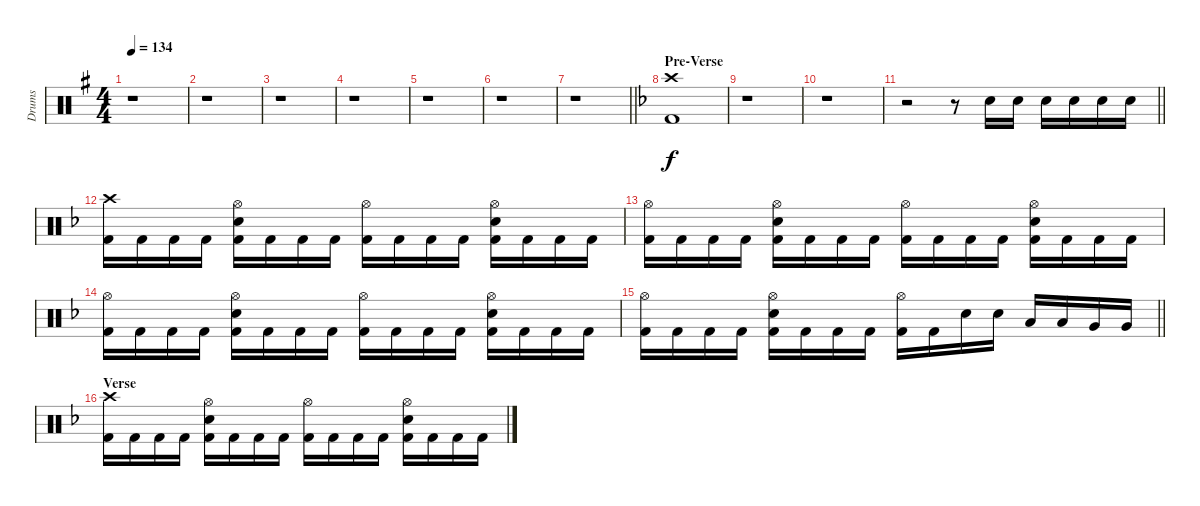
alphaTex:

\track ("Drums" "Drums") {instrument percussion}
\staff {score}
\articulation defaults
\ts (4 4)
\tempo 134
\clef neutral
\ks eminor
r.1{dy f} |
r.1 |
r.1 |
r.1 |
r.1 |
r.1 |
\barLineRight lightlight
r.1 |
\section ("" "Pre-Verse")
\ks dminor
("Crash high (hit)" "Kick (hit) 2").1 |
r.1 |
r.1 |
\barLineRight lightlight
r.2 r.8 "Snare (hit) 2".16 "Snare (hit) 2".16 "Snare (hit) 2".16 "Snare (hit) 2".16 "Snare (hit) 2".16 "Snare (hit) 2".16 |
("Crash high (hit)" "Kick (hit) 2").16 "Kick (hit) 2".16 "Kick (hit) 2".16 "Kick (hit) 2".16 ("Hi-Hat (open)" "Snare (hit) 2" "Kick (hit) 2").16 "Kick (hit) 2".16 "Kick (hit) 2".16 "Kick (hit) 2".16 ("Hi-Hat (open)" "Kick (hit) 2").16 "Kick (hit) 2".16 "Kick (hit) 2".16 "Kick (hit) 2".16 ("Hi-Hat (open)" "Snare (hit) 2" "Kick (hit) 2").16 "Kick (hit) 2".16 "Kick (hit) 2".16 "Kick (hit) 2".16 |
("Hi-Hat (open)" "Kick (hit) 2").16 "Kick (hit) 2".16 "Kick (hit) 2".16 "Kick (hit) 2".16 ("Hi-Hat (open)" "Snare (hit) 2" "Kick (hit) 2").16 "Kick (hit) 2".16 "Kick (hit) 2".16 "Kick (hit) 2".16 ("Hi-Hat (open)" "Kick (hit) 2").16 "Kick (hit) 2".16 "Kick (hit) 2".16 "Kick (hit) 2".16 ("Hi-Hat (open)" "Snare (hit) 2" "Kick (hit) 2").16 "Kick (hit) 2".16 "Kick (hit) 2".16 "Kick (hit) 2".16 |
("Hi-Hat (open)" "Kick (hit) 2").16 "Kick (hit) 2".16 "Kick (hit) 2".16 "Kick (hit) 2".16 ("Hi-Hat (open)" "Snare (hit) 2" "Kick (hit) 2").16 "Kick (hit) 2".16 "Kick (hit) 2".16 "Kick (hit) 2".16 ("Hi-Hat (open)" "Kick (hit) 2").16 "Kick (hit) 2".16 "Kick (hit) 2".16 "Kick (hit) 2".16 ("Hi-Hat (open)" "Snare (hit) 2" "Kick (hit) 2").16 "Kick (hit) 2".16 "Kick (hit) 2".16 "Kick (hit) 2".16 |
\barLineRight lightlight
("Hi-Hat (open)" "Kick (hit) 2").16 "Kick (hit) 2".16 "Kick (hit) 2".16 "Kick (hit) 2".16 ("Hi-Hat (open)" "Snare (hit) 2" "Kick (hit) 2").16 "Kick (hit) 2".16 "Kick (hit) 2".16 "Kick (hit) 2".16 ("Hi-Hat (open)" "Kick (hit) 2").16 "Kick (hit) 2".16 "Snare (hit) 2".16 "Snare (hit) 2".16 "Low Tom (hit)".16 "Low Tom (hit)".16 "Very Low Tom (hit)".16 "Very Low Tom (hit)".16 |
\section ("" "Verse")
("Crash high (hit)" "Kick (hit) 2").16 "Kick (hit) 2".16 "Kick (hit) 2".16 "Kick (hit) 2".16 ("Hi-Hat (open)" "Snare (hit) 2" "Kick (hit) 2").16 "Kick (hit) 2".16 "Kick (hit) 2".16 "Kick (hit) 2".16 ("Hi-Hat (open)" "Kick (hit) 2").16 "Kick (hit) 2".16 "Kick (hit) 2".16 "Kick (hit) 2".16 ("Hi-Hat (open)" "Snare (hit) 2" "Kick (hit) 2").16 "Kick (hit) 2".16 "Kick (hit) 2".16 "Kick (hit) 2".16
